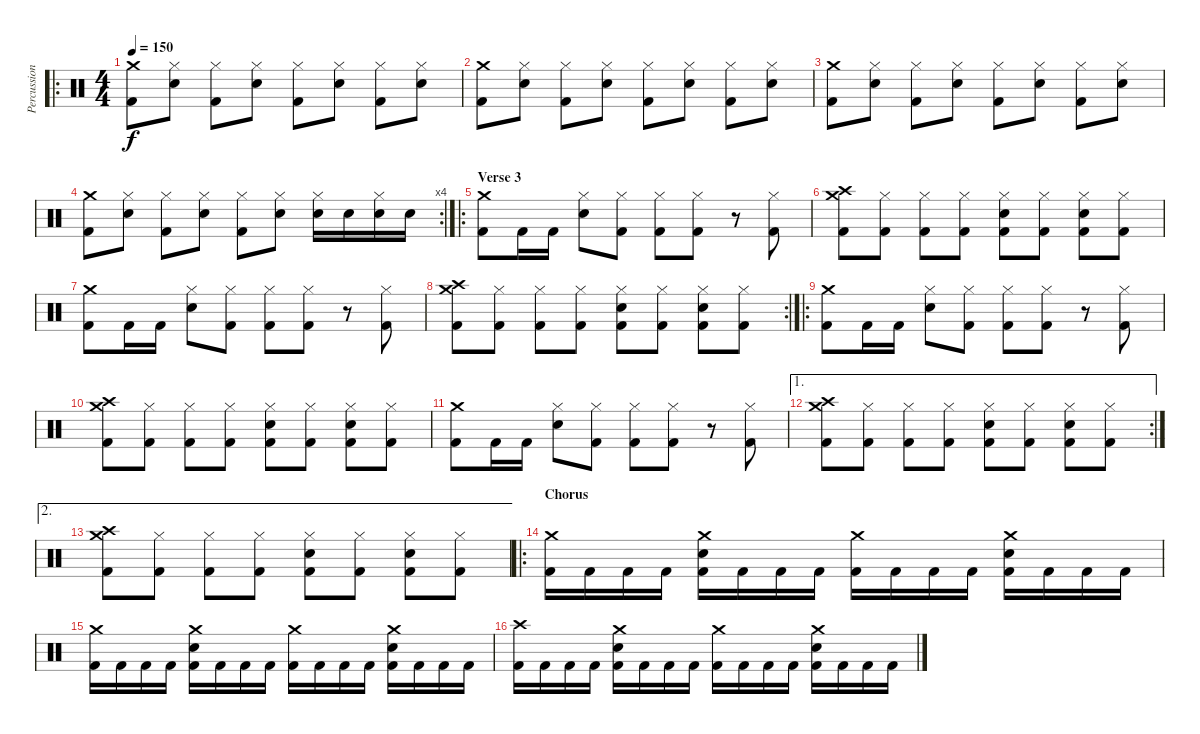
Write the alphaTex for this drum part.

\track ("Percussions" "Percussion") {instrument percussion}
\staff {score}
\articulation defaults
\ro
\ts (4 4)
\tempo 150
\clef neutral
\ks c
("Crash medium (hit)" "Kick (hit) 2").8{dy f} ("Hi-Hat (closed)" "Snare (hit) 2").8 ("Hi-Hat (closed)" "Kick (hit) 2").8 ("Hi-Hat (closed)" "Snare (hit) 2").8 ("Hi-Hat (closed)" "Kick (hit) 2").8 ("Hi-Hat (closed)" "Snare (hit) 2").8 ("Hi-Hat (closed)" "Kick (hit) 2").8 ("Hi-Hat (closed)" "Snare (hit) 2").8 |
("Crash medium (hit)" "Kick (hit) 2").8 ("Hi-Hat (closed)" "Snare (hit) 2").8 ("Hi-Hat (closed)" "Kick (hit) 2").8 ("Hi-Hat (closed)" "Snare (hit) 2").8 ("Hi-Hat (closed)" "Kick (hit) 2").8 ("Hi-Hat (closed)" "Snare (hit) 2").8 ("Hi-Hat (closed)" "Kick (hit) 2").8 ("Hi-Hat (closed)" "Snare (hit) 2").8 |
("Crash medium (hit)" "Kick (hit) 2").8 ("Hi-Hat (closed)" "Snare (hit) 2").8 ("Hi-Hat (closed)" "Kick (hit) 2").8 ("Hi-Hat (closed)" "Snare (hit) 2").8 ("Hi-Hat (closed)" "Kick (hit) 2").8 ("Hi-Hat (closed)" "Snare (hit) 2").8 ("Hi-Hat (closed)" "Kick (hit) 2").8 ("Hi-Hat (closed)" "Snare (hit) 2").8 |
\rc 4
("Crash medium (hit)" "Kick (hit) 2").8 ("Hi-Hat (closed)" "Snare (hit) 2").8 ("Hi-Hat (closed)" "Kick (hit) 2").8 ("Hi-Hat (closed)" "Snare (hit) 2").8 ("Hi-Hat (closed)" "Kick (hit) 2").8 ("Hi-Hat (closed)" "Snare (hit) 2").8 ("Hi-Hat (closed)" "Snare (hit) 2").16 "Snare (hit) 2".16 ("Hi-Hat (closed)" "Snare (hit) 2").16 "Snare (hit) 2".16 |
\ro
\section ("" "Verse 3")
("Crash medium (hit)" "Kick (hit) 2").8 "Kick (hit) 2".16 "Kick (hit) 2".16 ("Hi-Hat (closed)" "Snare (hit) 2").8 ("Hi-Hat (closed)" "Kick (hit) 2").8 ("Hi-Hat (closed)" "Kick (hit) 2").8 ("Hi-Hat (closed)" "Kick (hit) 2").8 r.8 ("Hi-Hat (closed)" "Kick (hit) 2").8 |
("Crash high (hit)" "Crash medium (hit)" "Kick (hit) 2").8 ("Hi-Hat (closed)" "Kick (hit) 2").8 ("Hi-Hat (closed)" "Kick (hit) 2").8 ("Hi-Hat (closed)" "Kick (hit) 2").8 ("Hi-Hat (closed)" "Snare (hit) 2" "Kick (hit) 2").8 ("Hi-Hat (closed)" "Kick (hit) 2").8 ("Hi-Hat (closed)" "Snare (hit) 2" "Kick (hit) 2").8 ("Hi-Hat (closed)" "Kick (hit) 2").8 |
("Crash medium (hit)" "Kick (hit) 2").8 "Kick (hit) 2".16 "Kick (hit) 2".16 ("Hi-Hat (closed)" "Snare (hit) 2").8 ("Hi-Hat (closed)" "Kick (hit) 2").8 ("Hi-Hat (closed)" "Kick (hit) 2").8 ("Hi-Hat (closed)" "Kick (hit) 2").8 r.8 ("Hi-Hat (closed)" "Kick (hit) 2").8 |
\rc 2
("Crash high (hit)" "Crash medium (hit)" "Kick (hit) 2").8 ("Hi-Hat (closed)" "Kick (hit) 2").8 ("Hi-Hat (closed)" "Kick (hit) 2").8 ("Hi-Hat (closed)" "Kick (hit) 2").8 ("Hi-Hat (closed)" "Snare (hit) 2" "Kick (hit) 2").8 ("Hi-Hat (closed)" "Kick (hit) 2").8 ("Hi-Hat (closed)" "Snare (hit) 2" "Kick (hit) 2").8 ("Hi-Hat (closed)" "Kick (hit) 2").8 |
\ro
("Crash medium (hit)" "Kick (hit) 2").8 "Kick (hit) 2".16 "Kick (hit) 2".16 ("Hi-Hat (closed)" "Snare (hit) 2").8 ("Hi-Hat (closed)" "Kick (hit) 2").8 ("Hi-Hat (closed)" "Kick (hit) 2").8 ("Hi-Hat (closed)" "Kick (hit) 2").8 r.8 ("Hi-Hat (closed)" "Kick (hit) 2").8 |
("Crash high (hit)" "Crash medium (hit)" "Kick (hit) 2").8 ("Hi-Hat (closed)" "Kick (hit) 2").8 ("Hi-Hat (closed)" "Kick (hit) 2").8 ("Hi-Hat (closed)" "Kick (hit) 2").8 ("Hi-Hat (closed)" "Snare (hit) 2" "Kick (hit) 2").8 ("Hi-Hat (closed)" "Kick (hit) 2").8 ("Hi-Hat (closed)" "Snare (hit) 2" "Kick (hit) 2").8 ("Hi-Hat (closed)" "Kick (hit) 2").8 |
("Crash medium (hit)" "Kick (hit) 2").8 "Kick (hit) 2".16 "Kick (hit) 2".16 ("Hi-Hat (closed)" "Snare (hit) 2").8 ("Hi-Hat (closed)" "Kick (hit) 2").8 ("Hi-Hat (closed)" "Kick (hit) 2").8 ("Hi-Hat (closed)" "Kick (hit) 2").8 r.8 ("Hi-Hat (closed)" "Kick (hit) 2").8 |
\ae 1
\rc 2
("Crash high (hit)" "Crash medium (hit)" "Kick (hit) 2").8 ("Hi-Hat (closed)" "Kick (hit) 2").8 ("Hi-Hat (closed)" "Kick (hit) 2").8 ("Hi-Hat (closed)" "Kick (hit) 2").8 ("Hi-Hat (closed)" "Snare (hit) 2" "Kick (hit) 2").8 ("Hi-Hat (closed)" "Kick (hit) 2").8 ("Hi-Hat (closed)" "Snare (hit) 2" "Kick (hit) 2").8 ("Hi-Hat (closed)" "Kick (hit) 2").8 |
\ae 2
("Crash high (hit)" "Crash medium (hit)" "Kick (hit) 2").8 ("Hi-Hat (closed)" "Kick (hit) 2").8 ("Hi-Hat (closed)" "Kick (hit) 2").8 ("Hi-Hat (closed)" "Kick (hit) 2").8 ("Hi-Hat (closed)" "Snare (hit) 2" "Kick (hit) 2").8 ("Hi-Hat (closed)" "Kick (hit) 2").8 ("Hi-Hat (closed)" "Snare (hit) 2" "Kick (hit) 2").8 ("Hi-Hat (closed)" "Kick (hit) 2").8 |
\ro
\section ("" "Chorus")
("Crash medium (hit)" "Kick (hit) 2").16 "Kick (hit) 2".16 "Kick (hit) 2".16 "Kick (hit) 2".16 ("Crash medium (hit)" "Snare (hit) 2" "Kick (hit) 2").16 "Kick (hit) 2".16 "Kick (hit) 2".16 "Kick (hit) 2".16 ("Crash medium (hit)" "Kick (hit) 2").16 "Kick (hit) 2".16 "Kick (hit) 2".16 "Kick (hit) 2".16 ("Crash medium (hit)" "Snare (hit) 2" "Kick (hit) 2").16 "Kick (hit) 2".16 "Kick (hit) 2".16 "Kick (hit) 2".16 |
("Crash medium (hit)" "Kick (hit) 2").16 "Kick (hit) 2".16 "Kick (hit) 2".16 "Kick (hit) 2".16 ("Crash medium (hit)" "Snare (hit) 2" "Kick (hit) 2").16 "Kick (hit) 2".16 "Kick (hit) 2".16 "Kick (hit) 2".16 ("Crash medium (hit)" "Kick (hit) 2").16 "Kick (hit) 2".16 "Kick (hit) 2".16 "Kick (hit) 2".16 ("Crash medium (hit)" "Snare (hit) 2" "Kick (hit) 2").16 "Kick (hit) 2".16 "Kick (hit) 2".16 "Kick (hit) 2".16 |
("Crash high (hit)" "Kick (hit) 2").16 "Kick (hit) 2".16 "Kick (hit) 2".16 "Kick (hit) 2".16 ("Crash medium (hit)" "Snare (hit) 2" "Kick (hit) 2").16 "Kick (hit) 2".16 "Kick (hit) 2".16 "Kick (hit) 2".16 ("Crash medium (hit)" "Kick (hit) 2").16 "Kick (hit) 2".16 "Kick (hit) 2".16 "Kick (hit) 2".16 ("Crash medium (hit)" "Snare (hit) 2" "Kick (hit) 2").16 "Kick (hit) 2".16 "Kick (hit) 2".16 "Kick (hit) 2".16
